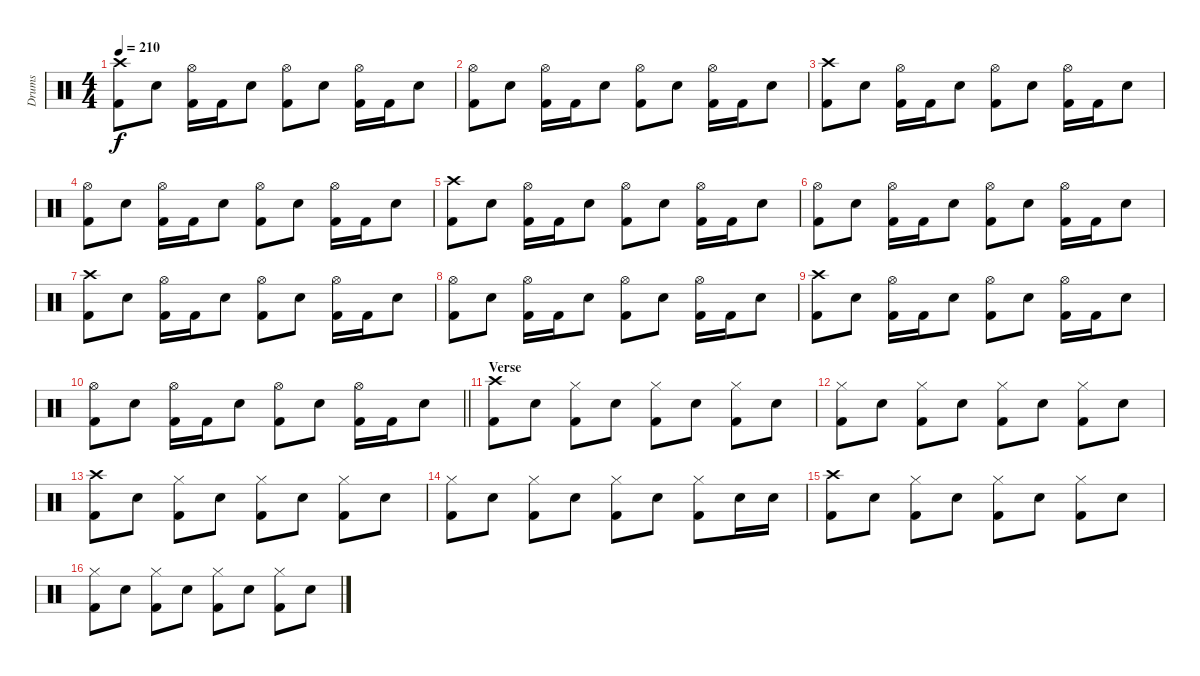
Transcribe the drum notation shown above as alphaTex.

\track ("Drums" "Drums") {instrument percussion}
\staff {score}
\articulation defaults
\ts (4 4)
\tempo 210
\clef neutral
\ks c
("Crash high (hit)" "Kick (hit) 2").8{dy f} "Snare (hit) 2".8 ("Hi-Hat (open)" "Kick (hit) 2").16 "Kick (hit) 2".16 "Snare (hit) 2".8 ("Hi-Hat (open)" "Kick (hit) 2").8 "Snare (hit) 2".8 ("Hi-Hat (open)" "Kick (hit) 2").16 "Kick (hit) 2".16 "Snare (hit) 2".8 |
("Hi-Hat (open)" "Kick (hit) 2").8 "Snare (hit) 2".8 ("Hi-Hat (open)" "Kick (hit) 2").16 "Kick (hit) 2".16 "Snare (hit) 2".8 ("Hi-Hat (open)" "Kick (hit) 2").8 "Snare (hit) 2".8 ("Hi-Hat (open)" "Kick (hit) 2").16 "Kick (hit) 2".16 "Snare (hit) 2".8 |
("Crash high (hit)" "Kick (hit) 2").8 "Snare (hit) 2".8 ("Hi-Hat (open)" "Kick (hit) 2").16 "Kick (hit) 2".16 "Snare (hit) 2".8 ("Hi-Hat (open)" "Kick (hit) 2").8 "Snare (hit) 2".8 ("Hi-Hat (open)" "Kick (hit) 2").16 "Kick (hit) 2".16 "Snare (hit) 2".8 |
("Hi-Hat (open)" "Kick (hit) 2").8 "Snare (hit) 2".8 ("Hi-Hat (open)" "Kick (hit) 2").16 "Kick (hit) 2".16 "Snare (hit) 2".8 ("Hi-Hat (open)" "Kick (hit) 2").8 "Snare (hit) 2".8 ("Hi-Hat (open)" "Kick (hit) 2").16 "Kick (hit) 2".16 "Snare (hit) 2".8 |
("Crash high (hit)" "Kick (hit) 2").8 "Snare (hit) 2".8 ("Hi-Hat (open)" "Kick (hit) 2").16 "Kick (hit) 2".16 "Snare (hit) 2".8 ("Hi-Hat (open)" "Kick (hit) 2").8 "Snare (hit) 2".8 ("Hi-Hat (open)" "Kick (hit) 2").16 "Kick (hit) 2".16 "Snare (hit) 2".8 |
("Hi-Hat (open)" "Kick (hit) 2").8 "Snare (hit) 2".8 ("Hi-Hat (open)" "Kick (hit) 2").16 "Kick (hit) 2".16 "Snare (hit) 2".8 ("Hi-Hat (open)" "Kick (hit) 2").8 "Snare (hit) 2".8 ("Hi-Hat (open)" "Kick (hit) 2").16 "Kick (hit) 2".16 "Snare (hit) 2".8 |
("Crash high (hit)" "Kick (hit) 2").8 "Snare (hit) 2".8 ("Hi-Hat (open)" "Kick (hit) 2").16 "Kick (hit) 2".16 "Snare (hit) 2".8 ("Hi-Hat (open)" "Kick (hit) 2").8 "Snare (hit) 2".8 ("Hi-Hat (open)" "Kick (hit) 2").16 "Kick (hit) 2".16 "Snare (hit) 2".8 |
("Hi-Hat (open)" "Kick (hit) 2").8 "Snare (hit) 2".8 ("Hi-Hat (open)" "Kick (hit) 2").16 "Kick (hit) 2".16 "Snare (hit) 2".8 ("Hi-Hat (open)" "Kick (hit) 2").8 "Snare (hit) 2".8 ("Hi-Hat (open)" "Kick (hit) 2").16 "Kick (hit) 2".16 "Snare (hit) 2".8 |
("Crash high (hit)" "Kick (hit) 2").8 "Snare (hit) 2".8 ("Hi-Hat (open)" "Kick (hit) 2").16 "Kick (hit) 2".16 "Snare (hit) 2".8 ("Hi-Hat (open)" "Kick (hit) 2").8 "Snare (hit) 2".8 ("Hi-Hat (open)" "Kick (hit) 2").16 "Kick (hit) 2".16 "Snare (hit) 2".8 |
\barLineRight lightlight
("Hi-Hat (open)" "Kick (hit) 2").8 "Snare (hit) 2".8 ("Hi-Hat (open)" "Kick (hit) 2").16 "Kick (hit) 2".16 "Snare (hit) 2".8 ("Hi-Hat (open)" "Kick (hit) 2").8 "Snare (hit) 2".8 ("Hi-Hat (open)" "Kick (hit) 2").16 "Kick (hit) 2".16 "Snare (hit) 2".8 |
\section ("" "Verse")
("Crash high (hit)" "Kick (hit) 2").8 "Snare (hit) 2".8 ("Hi-Hat (closed)" "Kick (hit) 2").8 "Snare (hit) 2".8 ("Hi-Hat (closed)" "Kick (hit) 2").8 "Snare (hit) 2".8 ("Hi-Hat (closed)" "Kick (hit) 2").8 "Snare (hit) 2".8 |
("Hi-Hat (closed)" "Kick (hit) 2").8 "Snare (hit) 2".8 ("Hi-Hat (closed)" "Kick (hit) 2").8 "Snare (hit) 2".8 ("Hi-Hat (closed)" "Kick (hit) 2").8 "Snare (hit) 2".8 ("Hi-Hat (closed)" "Kick (hit) 2").8 "Snare (hit) 2".8 |
("Crash high (hit)" "Kick (hit) 2").8 "Snare (hit) 2".8 ("Hi-Hat (closed)" "Kick (hit) 2").8 "Snare (hit) 2".8 ("Hi-Hat (closed)" "Kick (hit) 2").8 "Snare (hit) 2".8 ("Hi-Hat (closed)" "Kick (hit) 2").8 "Snare (hit) 2".8 |
("Hi-Hat (closed)" "Kick (hit) 2").8 "Snare (hit) 2".8 ("Hi-Hat (closed)" "Kick (hit) 2").8 "Snare (hit) 2".8 ("Hi-Hat (closed)" "Kick (hit) 2").8 "Snare (hit) 2".8 ("Hi-Hat (closed)" "Kick (hit) 2").8 "Snare (hit) 2".16 "Snare (hit) 2".16 |
("Crash high (hit)" "Kick (hit) 2").8 "Snare (hit) 2".8 ("Hi-Hat (closed)" "Kick (hit) 2").8 "Snare (hit) 2".8 ("Hi-Hat (closed)" "Kick (hit) 2").8 "Snare (hit) 2".8 ("Hi-Hat (closed)" "Kick (hit) 2").8 "Snare (hit) 2".8 |
("Hi-Hat (closed)" "Kick (hit) 2").8 "Snare (hit) 2".8 ("Hi-Hat (closed)" "Kick (hit) 2").8 "Snare (hit) 2".8 ("Hi-Hat (closed)" "Kick (hit) 2").8 "Snare (hit) 2".8 ("Hi-Hat (closed)" "Kick (hit) 2").8 "Snare (hit) 2".8
